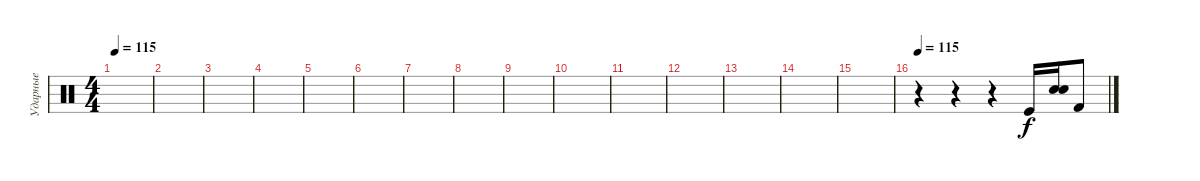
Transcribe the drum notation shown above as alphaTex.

\track ("Ударные" "Ударные") {instrument percussion}
\staff {score}
\articulation defaults
\ts (4 4)
\tempo 115
\clef neutral
\ks c
|
|
|
|
|
|
|
|
|
|
|
|
|
|
|
\tempo 115
r.4 r.4 r.4 "Kick (hit)".16 ("Snare (hit) 2" "Electric Snare (hit)").16 "Kick (hit) 2".8
